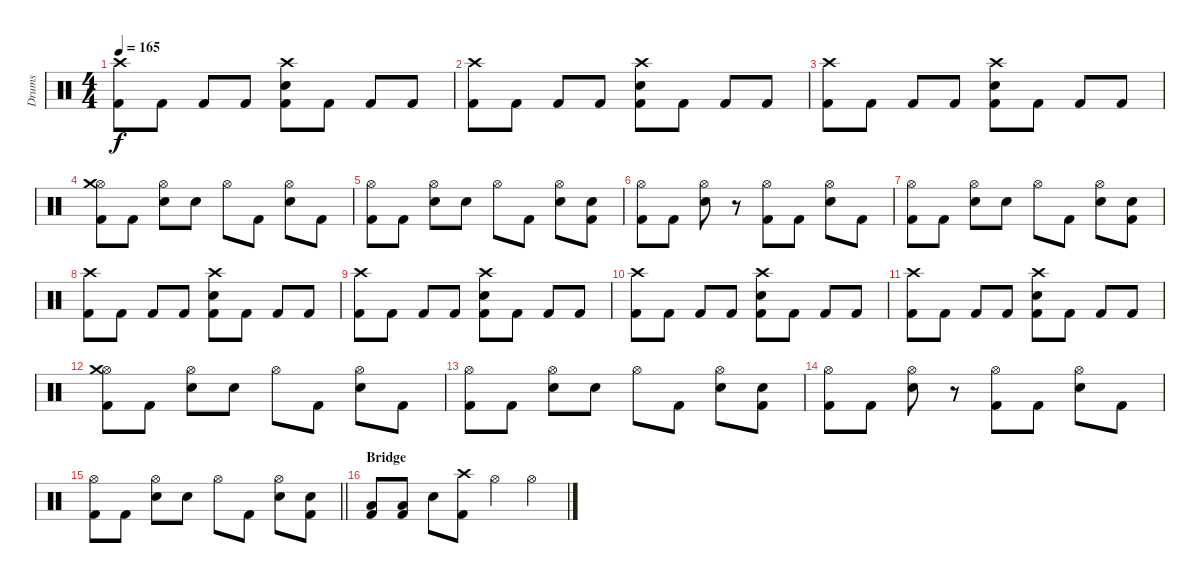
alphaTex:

\track ("Drums" "Drums") {instrument percussion}
\staff {score}
\articulation defaults
\ts (4 4)
\tempo 165
\clef neutral
\ks c
("Crash high (hit)" "Kick (hit) 2").8{dy f} "Kick (hit) 2".8 "Kick (hit) 2".8 "Kick (hit) 2".8 ("Crash high (hit)" "Snare (hit) 2" "Kick (hit) 2").8 "Kick (hit) 2".8 "Kick (hit) 2".8 "Kick (hit) 2".8 |
("Crash high (hit)" "Kick (hit) 2").8 "Kick (hit) 2".8 "Kick (hit) 2".8 "Kick (hit) 2".8 ("Crash high (hit)" "Snare (hit) 2" "Kick (hit) 2").8 "Kick (hit) 2".8 "Kick (hit) 2".8 "Kick (hit) 2".8 |
("Crash high (hit)" "Kick (hit) 2").8 "Kick (hit) 2".8 "Kick (hit) 2".8 "Kick (hit) 2".8 ("Crash high (hit)" "Snare (hit) 2" "Kick (hit) 2").8 "Kick (hit) 2".8 "Kick (hit) 2".8 "Kick (hit) 2".8 |
("Hi-Hat (open)" "Crash medium (hit)" "Kick (hit) 2").8 "Kick (hit) 2".8 ("Hi-Hat (open)" "Snare (hit) 2").8 "Snare (hit) 2".8 "Hi-Hat (open)".8 "Kick (hit) 2".8 ("Hi-Hat (open)" "Snare (hit) 2").8 "Kick (hit) 2".8 |
("Hi-Hat (open)" "Kick (hit) 2").8 "Kick (hit) 2".8 ("Hi-Hat (open)" "Snare (hit) 2").8 "Snare (hit) 2".8 "Hi-Hat (open)".8 "Kick (hit) 2".8 ("Hi-Hat (open)" "Snare (hit) 2").8 ("Snare (hit) 2" "Kick (hit) 2").8 |
("Hi-Hat (open)" "Kick (hit) 2").8 "Kick (hit) 2".8 ("Hi-Hat (open)" "Snare (hit) 2").8 r.8 ("Hi-Hat (open)" "Kick (hit) 2").8 "Kick (hit) 2".8 ("Hi-Hat (open)" "Snare (hit) 2").8 "Kick (hit) 2".8 |
("Hi-Hat (open)" "Kick (hit) 2").8 "Kick (hit) 2".8 ("Hi-Hat (open)" "Snare (hit) 2").8 "Snare (hit) 2".8 "Hi-Hat (open)".8 "Kick (hit) 2".8 ("Hi-Hat (open)" "Snare (hit) 2").8 ("Snare (hit) 2" "Kick (hit) 2").8 |
("Crash high (hit)" "Kick (hit) 2").8 "Kick (hit) 2".8 "Kick (hit) 2".8 "Kick (hit) 2".8 ("Crash high (hit)" "Snare (hit) 2" "Kick (hit) 2").8 "Kick (hit) 2".8 "Kick (hit) 2".8 "Kick (hit) 2".8 |
("Crash high (hit)" "Kick (hit) 2").8 "Kick (hit) 2".8 "Kick (hit) 2".8 "Kick (hit) 2".8 ("Crash high (hit)" "Snare (hit) 2" "Kick (hit) 2").8 "Kick (hit) 2".8 "Kick (hit) 2".8 "Kick (hit) 2".8 |
("Crash high (hit)" "Kick (hit) 2").8 "Kick (hit) 2".8 "Kick (hit) 2".8 "Kick (hit) 2".8 ("Crash high (hit)" "Snare (hit) 2" "Kick (hit) 2").8 "Kick (hit) 2".8 "Kick (hit) 2".8 "Kick (hit) 2".8 |
("Crash high (hit)" "Kick (hit) 2").8 "Kick (hit) 2".8 "Kick (hit) 2".8 "Kick (hit) 2".8 ("Crash high (hit)" "Snare (hit) 2" "Kick (hit) 2").8 "Kick (hit) 2".8 "Kick (hit) 2".8 "Kick (hit) 2".8 |
("Hi-Hat (open)" "Crash medium (hit)" "Kick (hit) 2").8 "Kick (hit) 2".8 ("Hi-Hat (open)" "Snare (hit) 2").8 "Snare (hit) 2".8 "Hi-Hat (open)".8 "Kick (hit) 2".8 ("Hi-Hat (open)" "Snare (hit) 2").8 "Kick (hit) 2".8 |
("Hi-Hat (open)" "Kick (hit) 2").8 "Kick (hit) 2".8 ("Hi-Hat (open)" "Snare (hit) 2").8 "Snare (hit) 2".8 "Hi-Hat (open)".8 "Kick (hit) 2".8 ("Hi-Hat (open)" "Snare (hit) 2").8 ("Snare (hit) 2" "Kick (hit) 2").8 |
("Hi-Hat (open)" "Kick (hit) 2").8 "Kick (hit) 2".8 ("Hi-Hat (open)" "Snare (hit) 2").8 r.8 ("Hi-Hat (open)" "Kick (hit) 2").8 "Kick (hit) 2".8 ("Hi-Hat (open)" "Snare (hit) 2").8 "Kick (hit) 2".8 |
\barLineRight lightlight
("Hi-Hat (open)" "Kick (hit) 2").8 "Kick (hit) 2".8 ("Hi-Hat (open)" "Snare (hit) 2").8 "Snare (hit) 2".8 "Hi-Hat (open)".8 "Kick (hit) 2".8 ("Hi-Hat (open)" "Snare (hit) 2").8 ("Snare (hit) 2" "Kick (hit) 2").8 |
\section ("" "Bridge")
("Low Floor Tom (hit)" "Kick (hit) 2").8 ("Low Floor Tom (hit)" "Kick (hit) 2").8 "Snare (hit) 2".8 ("Crash high (hit)" "Kick (hit) 2").8 "Hi-Hat (open)".4 "Hi-Hat (open)".4
